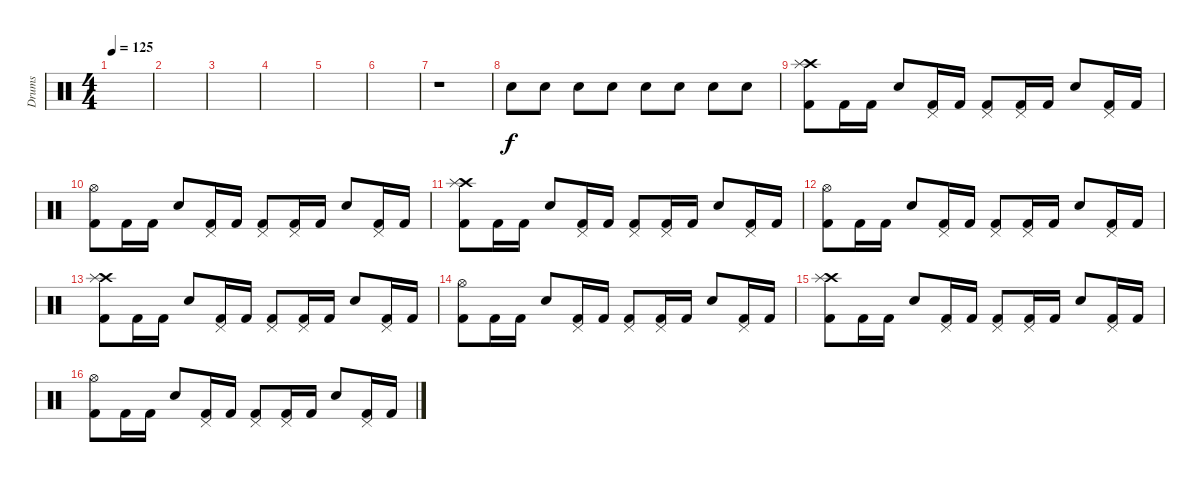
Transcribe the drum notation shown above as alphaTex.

\track ("Drums" "Drums") {instrument percussion}
\staff {score}
\articulation defaults
\ts (4 4)
\tempo 125
\clef neutral
\ks c
|
|
|
|
|
|
r.1{volume 0} |
"Electric Snare (hit)".8{volume 13} "Electric Snare (hit)".8 "Electric Snare (hit)".8 "Electric Snare (hit)".8 "Electric Snare (hit)".8 "Electric Snare (hit)".8 "Electric Snare (hit)".8 "Electric Snare (hit)".8 |
("Crash high (hit)" "Splash (hit)" "Kick (hit) 2").8 "Kick (hit) 2".16 "Kick (hit) 2".16 "Electric Snare (hit)".8 ("Pedal Hi-Hat (hit)" "Kick (hit) 2").16 "Kick (hit) 2".16 ("Pedal Hi-Hat (hit)" "Kick (hit) 2").8 ("Pedal Hi-Hat (hit)" "Kick (hit) 2").16 "Kick (hit) 2".16 "Electric Snare (hit)".8 ("Pedal Hi-Hat (hit)" "Kick (hit) 2").16 "Kick (hit) 2".16 |
("Hi-Hat (open)" "Kick (hit) 2").8 "Kick (hit) 2".16 "Kick (hit) 2".16 "Electric Snare (hit)".8 ("Pedal Hi-Hat (hit)" "Kick (hit) 2").16 "Kick (hit) 2".16 ("Pedal Hi-Hat (hit)" "Kick (hit) 2").8 ("Pedal Hi-Hat (hit)" "Kick (hit) 2").16 "Kick (hit) 2".16 "Electric Snare (hit)".8 ("Pedal Hi-Hat (hit)" "Kick (hit) 2").16 "Kick (hit) 2".16 |
("Crash high (hit)" "Splash (hit)" "Kick (hit) 2").8 "Kick (hit) 2".16 "Kick (hit) 2".16 "Electric Snare (hit)".8 ("Pedal Hi-Hat (hit)" "Kick (hit) 2").16 "Kick (hit) 2".16 ("Pedal Hi-Hat (hit)" "Kick (hit) 2").8 ("Pedal Hi-Hat (hit)" "Kick (hit) 2").16 "Kick (hit) 2".16 "Electric Snare (hit)".8 ("Pedal Hi-Hat (hit)" "Kick (hit) 2").16 "Kick (hit) 2".16 |
("Hi-Hat (open)" "Kick (hit) 2").8 "Kick (hit) 2".16 "Kick (hit) 2".16 "Electric Snare (hit)".8 ("Pedal Hi-Hat (hit)" "Kick (hit) 2").16 "Kick (hit) 2".16 ("Pedal Hi-Hat (hit)" "Kick (hit) 2").8 ("Pedal Hi-Hat (hit)" "Kick (hit) 2").16 "Kick (hit) 2".16 "Electric Snare (hit)".8 ("Pedal Hi-Hat (hit)" "Kick (hit) 2").16 "Kick (hit) 2".16 |
("Crash high (hit)" "Splash (hit)" "Kick (hit) 2").8 "Kick (hit) 2".16 "Kick (hit) 2".16 "Electric Snare (hit)".8 ("Pedal Hi-Hat (hit)" "Kick (hit) 2").16 "Kick (hit) 2".16 ("Pedal Hi-Hat (hit)" "Kick (hit) 2").8 ("Pedal Hi-Hat (hit)" "Kick (hit) 2").16 "Kick (hit) 2".16 "Electric Snare (hit)".8 ("Pedal Hi-Hat (hit)" "Kick (hit) 2").16 "Kick (hit) 2".16 |
("Hi-Hat (open)" "Kick (hit) 2").8 "Kick (hit) 2".16 "Kick (hit) 2".16 "Electric Snare (hit)".8 ("Pedal Hi-Hat (hit)" "Kick (hit) 2").16 "Kick (hit) 2".16 ("Pedal Hi-Hat (hit)" "Kick (hit) 2").8 ("Pedal Hi-Hat (hit)" "Kick (hit) 2").16 "Kick (hit) 2".16 "Electric Snare (hit)".8 ("Pedal Hi-Hat (hit)" "Kick (hit) 2").16 "Kick (hit) 2".16 |
("Crash high (hit)" "Splash (hit)" "Kick (hit) 2").8 "Kick (hit) 2".16 "Kick (hit) 2".16 "Electric Snare (hit)".8 ("Pedal Hi-Hat (hit)" "Kick (hit) 2").16 "Kick (hit) 2".16 ("Pedal Hi-Hat (hit)" "Kick (hit) 2").8 ("Pedal Hi-Hat (hit)" "Kick (hit) 2").16 "Kick (hit) 2".16 "Electric Snare (hit)".8 ("Pedal Hi-Hat (hit)" "Kick (hit) 2").16 "Kick (hit) 2".16 |
("Hi-Hat (open)" "Kick (hit) 2").8 "Kick (hit) 2".16 "Kick (hit) 2".16 "Electric Snare (hit)".8 ("Pedal Hi-Hat (hit)" "Kick (hit) 2").16 "Kick (hit) 2".16 ("Pedal Hi-Hat (hit)" "Kick (hit) 2").8 ("Pedal Hi-Hat (hit)" "Kick (hit) 2").16 "Kick (hit) 2".16 "Electric Snare (hit)".8 ("Pedal Hi-Hat (hit)" "Kick (hit) 2").16 "Kick (hit) 2".16
